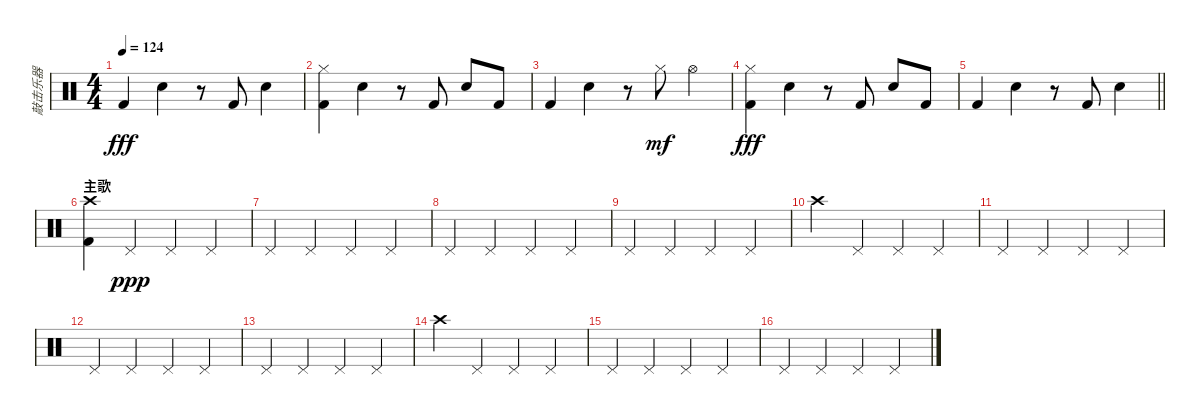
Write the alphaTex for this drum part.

\track ("敲击乐器" "敲击乐器") {instrument percussion}
\staff {score}
\articulation defaults
\ts (4 4)
\tempo 124
\clef neutral
\ks c "Kick (hit) 2".4{dy fff} "Snare (hit) 2".4
r.8 "Kick (hit) 2".8 "Snare (hit) 2".4 |
("Hi-Hat (closed)" "Kick (hit) 2").4 "Snare (hit) 2".4 r.8 "Kick (hit) 2".8 "Snare (hit) 2".8 "Kick (hit) 2".8 |
"Kick (hit) 2".4 "Snare (hit) 2".4 r.8 "Hi-Hat (closed)".8{dy mf} "Hi-Hat (open)".4 |
("Hi-Hat (closed)" "Kick (hit) 2").4{dy fff} "Snare (hit) 2".4 r.8 "Kick (hit) 2".8 "Snare (hit) 2".8 "Kick (hit) 2".8 |
\barLineRight lightlight "Kick (hit) 2".4 "Snare (hit) 2".4
r.8 "Kick (hit) 2".8 "Snare (hit) 2".4 |
\section ("" "主歌")
("Crash high (hit)" "Kick (hit) 2").4 "Pedal Hi-Hat (hit)".4{dy ppp} "Pedal Hi-Hat (hit)".4 "Pedal Hi-Hat (hit)".4 |
"Pedal Hi-Hat (hit)".4 "Pedal Hi-Hat (hit)".4 "Pedal Hi-Hat (hit)".4 "Pedal Hi-Hat (hit)".4 |
"Pedal Hi-Hat (hit)".4 "Pedal Hi-Hat (hit)".4 "Pedal Hi-Hat (hit)".4 "Pedal Hi-Hat (hit)".4 |
"Pedal Hi-Hat (hit)".4 "Pedal Hi-Hat (hit)".4 "Pedal Hi-Hat (hit)".4 "Pedal Hi-Hat (hit)".4 |
"Crash high (hit)".4 "Pedal Hi-Hat (hit)".4 "Pedal Hi-Hat (hit)".4 "Pedal Hi-Hat (hit)".4 |
"Pedal Hi-Hat (hit)".4 "Pedal Hi-Hat (hit)".4 "Pedal Hi-Hat (hit)".4 "Pedal Hi-Hat (hit)".4 |
"Pedal Hi-Hat (hit)".4 "Pedal Hi-Hat (hit)".4 "Pedal Hi-Hat (hit)".4 "Pedal Hi-Hat (hit)".4 |
"Pedal Hi-Hat (hit)".4 "Pedal Hi-Hat (hit)".4 "Pedal Hi-Hat (hit)".4 "Pedal Hi-Hat (hit)".4 |
"Crash high (hit)".4 "Pedal Hi-Hat (hit)".4 "Pedal Hi-Hat (hit)".4 "Pedal Hi-Hat (hit)".4 |
"Pedal Hi-Hat (hit)".4 "Pedal Hi-Hat (hit)".4 "Pedal Hi-Hat (hit)".4 "Pedal Hi-Hat (hit)".4 |
"Pedal Hi-Hat (hit)".4 "Pedal Hi-Hat (hit)".4 "Pedal Hi-Hat (hit)".4 "Pedal Hi-Hat (hit)".4
